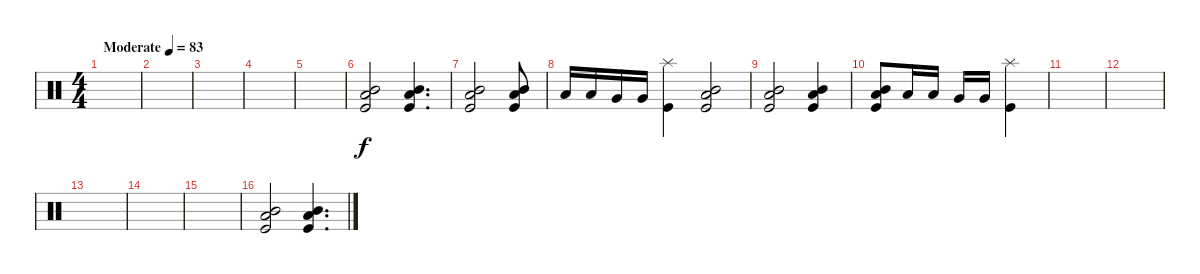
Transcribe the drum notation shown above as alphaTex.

\track "" {instrument percussion}
\staff {score}
\articulation defaults
\ts (4 4)
\tempo (83 "Moderate")
\clef neutral
\ks c
|
|
|
|
|
("Kick (hit)" "Low Tom (hit)" "Mid Tom (hit)").2 ("Kick (hit)" "Mid Tom (hit)" "Low Tom (hit)").4{d} |
("Mid Tom (hit)" "Low Tom (hit)" "Kick (hit)").2 ("Kick (hit)" "Low Tom (hit)" "Mid Tom (hit)").8 |
"Low Floor Tom (hit)".16 "Low Floor Tom (hit)".16 "Very Low Tom (hit)".16 "Very Low Tom (hit)".16 ("Splash (hit)" "Kick (hit)").4 ("Kick (hit)" "Mid Tom (hit)" "Low Tom (hit)").2 |
("Kick (hit)" "Mid Tom (hit)" "Low Tom (hit)").2 ("Mid Tom (hit)" "Low Tom (hit)" "Kick (hit)").4 |
("Kick (hit)" "Low Tom (hit)" "Mid Tom (hit)").8 "Low Floor Tom (hit)".16 "Low Floor Tom (hit)".16 "Very Low Tom (hit)".16 "Very Low Tom (hit)".16 ("Splash (hit)" "Kick (hit)").4 |
|
|
|
|
|
("Kick (hit)" "Mid Tom (hit)" "Low Tom (hit)").2 ("Kick (hit)" "Mid Tom (hit)" "Low Tom (hit)").4{d}
